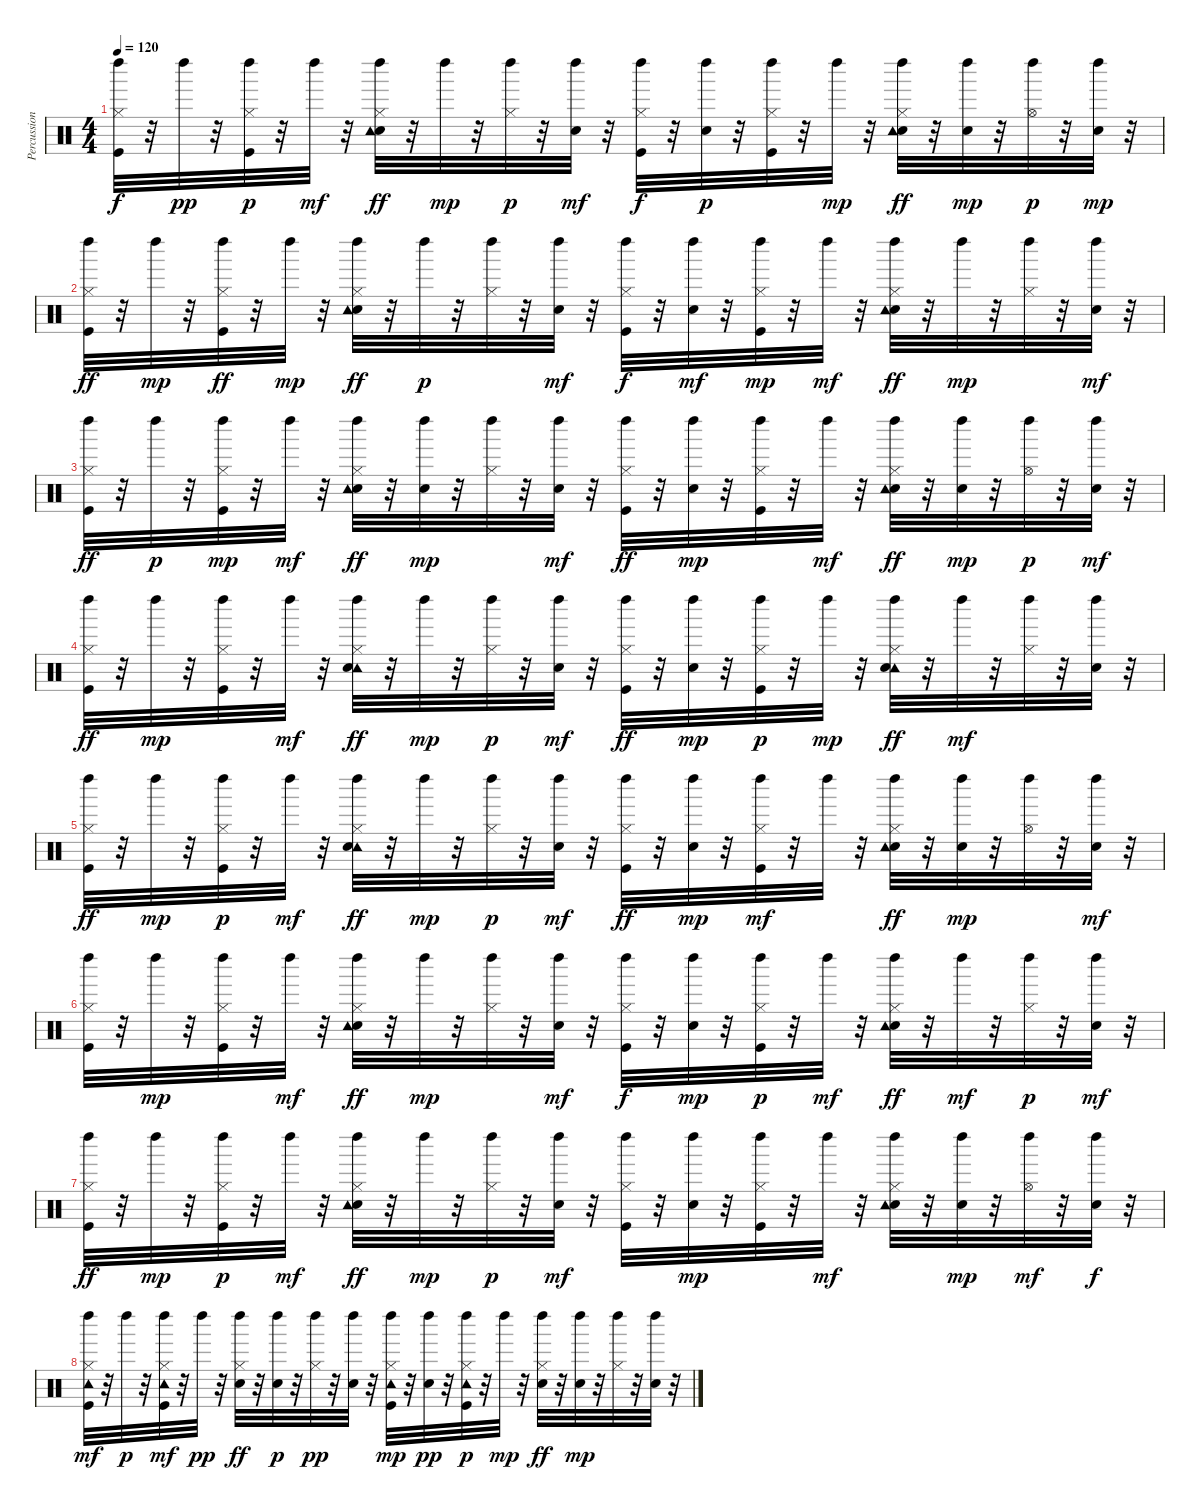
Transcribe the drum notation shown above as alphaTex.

\track ("Percussioni" "Percussion") {instrument percussion}
\staff {score}
\articulation defaults
\ts (4 4)
\tempo 120
\clef neutral
\ks c
("Hi-Hat (closed)" "Kick (hit)" "Left Maraca (hit)").32{dy f} r.32 "Left Maraca (hit)".32{dy pp} r.32 ("Kick (hit)" "Left Maraca (hit)" "Hi-Hat (closed)").32{dy p} r.32 "Left Maraca (hit)".32{dy mf} r.32 ("Electric Snare (hit)" "Tambourine (hit)" "Left Maraca (hit)" "Hi-Hat (closed)").32{dy ff} r.32 "Left Maraca (hit)".32{dy mp} r.32 ("Hi-Hat (closed)" "Left Maraca (hit)").32{dy p} r.32 ("Electric Snare (hit)" "Left Maraca (hit)").32{dy mf} r.32 ("Hi-Hat (closed)" "Kick (hit)" "Left Maraca (hit)").32{dy f} r.32 ("Electric Snare (hit)" "Left Maraca (hit)").32{dy p} r.32 ("Kick (hit)" "Hi-Hat (closed)" "Left Maraca (hit)").32 r.32 "Left Maraca (hit)".32{dy mp} r.32 ("Electric Snare (hit)" "Tambourine (hit)" "Left Maraca (hit)" "Hi-Hat (closed)").32{dy ff} r.32 ("Electric Snare (hit)" "Left Maraca (hit)").32{dy mp} r.32 ("Hi-Hat (open)" "Left Maraca (hit)").32{dy p} r.32 ("Electric Snare (hit)" "Left Maraca (hit)").32{dy mp} r.32 |
("Left Maraca (hit)" "Hi-Hat (closed)" "Kick (hit)").32{dy ff} r.32 "Left Maraca (hit)".32{dy mp} r.32 ("Hi-Hat (closed)" "Left Maraca (hit)" "Kick (hit)").32{dy ff} r.32 "Left Maraca (hit)".32{dy mp} r.32 ("Hi-Hat (closed)" "Electric Snare (hit)" "Tambourine (hit)" "Left Maraca (hit)").32{dy ff} r.32 "Left Maraca (hit)".32{dy p} r.32 ("Hi-Hat (closed)" "Left Maraca (hit)").32 r.32 ("Electric Snare (hit)" "Left Maraca (hit)").32{dy mf} r.32 ("Kick (hit)" "Hi-Hat (closed)" "Left Maraca (hit)").32{dy f} r.32 ("Left Maraca (hit)" "Electric Snare (hit)").32{dy mf} r.32 ("Hi-Hat (closed)" "Kick (hit)" "Left Maraca (hit)").32{dy mp} r.32 "Left Maraca (hit)".32{dy mf} r.32 ("Hi-Hat (closed)" "Electric Snare (hit)" "Tambourine (hit)" "Left Maraca (hit)").32{dy ff} r.32 "Left Maraca (hit)".32{dy mp} r.32 ("Hi-Hat (closed)" "Left Maraca (hit)").32 r.32 ("Electric Snare (hit)" "Left Maraca (hit)").32{dy mf} r.32 |
("Kick (hit)" "Left Maraca (hit)" "Hi-Hat (closed)").32{dy ff} r.32 "Left Maraca (hit)".32{dy p} r.32 ("Kick (hit)" "Left Maraca (hit)" "Hi-Hat (closed)").32{dy mp} r.32 "Left Maraca (hit)".32{dy mf} r.32 ("Electric Snare (hit)" "Tambourine (hit)" "Hi-Hat (closed)" "Left Maraca (hit)").32{dy ff} r.32 ("Electric Snare (hit)" "Left Maraca (hit)").32{dy mp} r.32 ("Hi-Hat (closed)" "Left Maraca (hit)").32 r.32 ("Electric Snare (hit)" "Left Maraca (hit)").32{dy mf} r.32 ("Kick (hit)" "Hi-Hat (closed)" "Left Maraca (hit)").32{dy ff} r.32 ("Electric Snare (hit)" "Left Maraca (hit)").32{dy mp} r.32 ("Kick (hit)" "Left Maraca (hit)" "Hi-Hat (closed)").32 r.32 "Left Maraca (hit)".32{dy mf} r.32 ("Hi-Hat (closed)" "Electric Snare (hit)" "Tambourine (hit)" "Left Maraca (hit)").32{dy ff} r.32 ("Electric Snare (hit)" "Left Maraca (hit)").32{dy mp} r.32 ("Hi-Hat (open)" "Left Maraca (hit)").32{dy p} r.32 ("Electric Snare (hit)" "Left Maraca (hit)").32{dy mf} r.32 |
("Hi-Hat (closed)" "Left Maraca (hit)" "Kick (hit)").32{dy ff} r.32 "Left Maraca (hit)".32{dy mp} r.32 ("Hi-Hat (closed)" "Kick (hit)" "Left Maraca (hit)").32 r.32 "Left Maraca (hit)".32{dy mf} r.32 ("Tambourine (hit)" "Hi-Hat (closed)" "Electric Snare (hit)" "Left Maraca (hit)").32{dy ff} r.32 "Left Maraca (hit)".32{dy mp} r.32 ("Hi-Hat (closed)" "Left Maraca (hit)").32{dy p} r.32 ("Left Maraca (hit)" "Electric Snare (hit)").32{dy mf} r.32 ("Kick (hit)" "Hi-Hat (closed)" "Left Maraca (hit)").32{dy ff} r.32 ("Electric Snare (hit)" "Left Maraca (hit)").32{dy mp} r.32 ("Hi-Hat (closed)" "Kick (hit)" "Left Maraca (hit)").32{dy p} r.32 "Left Maraca (hit)".32{dy mp} r.32 ("Tambourine (hit)" "Hi-Hat (closed)" "Electric Snare (hit)" "Left Maraca (hit)").32{dy ff} r.32 "Left Maraca (hit)".32{dy mf} r.32 ("Left Maraca (hit)" "Hi-Hat (closed)").32 r.32 ("Left Maraca (hit)" "Electric Snare (hit)").32 r.32 |
("Kick (hit)" "Hi-Hat (closed)" "Left Maraca (hit)").32{dy ff} r.32 "Left Maraca (hit)".32{dy mp} r.32 ("Kick (hit)" "Hi-Hat (closed)" "Left Maraca (hit)").32{dy p} r.32 "Left Maraca (hit)".32{dy mf} r.32 ("Tambourine (hit)" "Electric Snare (hit)" "Hi-Hat (closed)" "Left Maraca (hit)").32{dy ff} r.32 "Left Maraca (hit)".32{dy mp} r.32 ("Hi-Hat (closed)" "Left Maraca (hit)").32{dy p} r.32 ("Electric Snare (hit)" "Left Maraca (hit)").32{dy mf} r.32 ("Hi-Hat (closed)" "Kick (hit)" "Left Maraca (hit)").32{dy ff} r.32 ("Electric Snare (hit)" "Left Maraca (hit)").32{dy mp} r.32 ("Hi-Hat (closed)" "Kick (hit)" "Left Maraca (hit)").32{dy mf} r.32 "Left Maraca (hit)".32 r.32 ("Hi-Hat (closed)" "Electric Snare (hit)" "Tambourine (hit)" "Left Maraca (hit)").32{dy ff} r.32 ("Electric Snare (hit)" "Left Maraca (hit)").32{dy mp} r.32 ("Hi-Hat (open)" "Left Maraca (hit)").32 r.32 ("Electric Snare (hit)" "Left Maraca (hit)").32{dy mf} r.32 |
("Left Maraca (hit)" "Kick (hit)" "Hi-Hat (closed)").32 r.32 "Left Maraca (hit)".32{dy mp} r.32 ("Kick (hit)" "Hi-Hat (closed)" "Left Maraca (hit)").32 r.32 "Left Maraca (hit)".32{dy mf} r.32 ("Electric Snare (hit)" "Hi-Hat (closed)" "Tambourine (hit)" "Left Maraca (hit)").32{dy ff} r.32 "Left Maraca (hit)".32{dy mp} r.32 ("Hi-Hat (closed)" "Left Maraca (hit)").32 r.32 ("Electric Snare (hit)" "Left Maraca (hit)").32{dy mf} r.32 ("Hi-Hat (closed)" "Kick (hit)" "Left Maraca (hit)").32{dy f} r.32 ("Electric Snare (hit)" "Left Maraca (hit)").32{dy mp} r.32 ("Hi-Hat (closed)" "Kick (hit)" "Left Maraca (hit)").32{dy p} r.32 "Left Maraca (hit)".32{dy mf} r.32 ("Electric Snare (hit)" "Tambourine (hit)" "Left Maraca (hit)" "Hi-Hat (closed)").32{dy ff} r.32 "Left Maraca (hit)".32{dy mf} r.32 ("Hi-Hat (closed)" "Left Maraca (hit)").32{dy p} r.32 ("Electric Snare (hit)" "Left Maraca (hit)").32{dy mf} r.32 |
("Kick (hit)" "Left Maraca (hit)" "Hi-Hat (closed)").32{dy ff} r.32 "Left Maraca (hit)".32{dy mp} r.32 ("Kick (hit)" "Hi-Hat (closed)" "Left Maraca (hit)").32{dy p} r.32 "Left Maraca (hit)".32{dy mf} r.32 ("Left Maraca (hit)" "Hi-Hat (closed)" "Electric Snare (hit)" "Tambourine (hit)").32{dy ff} r.32 "Left Maraca (hit)".32{dy mp} r.32 ("Hi-Hat (closed)" "Left Maraca (hit)").32{dy p} r.32 ("Electric Snare (hit)" "Left Maraca (hit)").32{dy mf} r.32 ("Kick (hit)" "Left Maraca (hit)" "Hi-Hat (closed)").32 r.32 ("Electric Snare (hit)" "Left Maraca (hit)").32{dy mp} r.32 ("Hi-Hat (closed)" "Kick (hit)" "Left Maraca (hit)").32 r.32 "Left Maraca (hit)".32{dy mf} r.32 ("Hi-Hat (closed)" "Electric Snare (hit)" "Tambourine (hit)" "Left Maraca (hit)").32 r.32 ("Electric Snare (hit)" "Left Maraca (hit)").32{dy mp} r.32 ("Hi-Hat (open)" "Left Maraca (hit)").32{dy mf} r.32 ("Electric Snare (hit)" "Left Maraca (hit)").32{dy f} r.32 |
("Kick (hit)" "Tambourine (hit)" "Left Maraca (hit)" "Hi-Hat (closed)").32{dy mf} r.32 "Left Maraca (hit)".32{dy p} r.32 ("Tambourine (hit)" "Left Maraca (hit)" "Hi-Hat (closed)" "Kick (hit)").32{dy mf} r.32 "Left Maraca (hit)".32{dy pp} r.32 ("Electric Snare (hit)" "Left Maraca (hit)" "Hi-Hat (closed)").32{dy ff} r.32 ("Left Maraca (hit)" "Electric Snare (hit)").32{dy p} r.32 ("Hi-Hat (closed)" "Left Maraca (hit)").32{dy pp} r.32 ("Electric Snare (hit)" "Left Maraca (hit)").32 r.32 ("Tambourine (hit)" "Hi-Hat (closed)" "Kick (hit)" "Left Maraca (hit)").32{dy mp} r.32 ("Electric Snare (hit)" "Left Maraca (hit)").32{dy pp} r.32 ("Hi-Hat (closed)" "Kick (hit)" "Tambourine (hit)" "Left Maraca (hit)").32{dy p} r.32 "Left Maraca (hit)".32{dy mp} r.32 ("Left Maraca (hit)" "Hi-Hat (closed)" "Electric Snare (hit)").32{dy ff} r.32 ("Left Maraca (hit)" "Electric Snare (hit)").32{dy mp} r.32 ("Hi-Hat (closed)" "Left Maraca (hit)").32 r.32 ("Electric Snare (hit)" "Left Maraca (hit)").32 r.32
